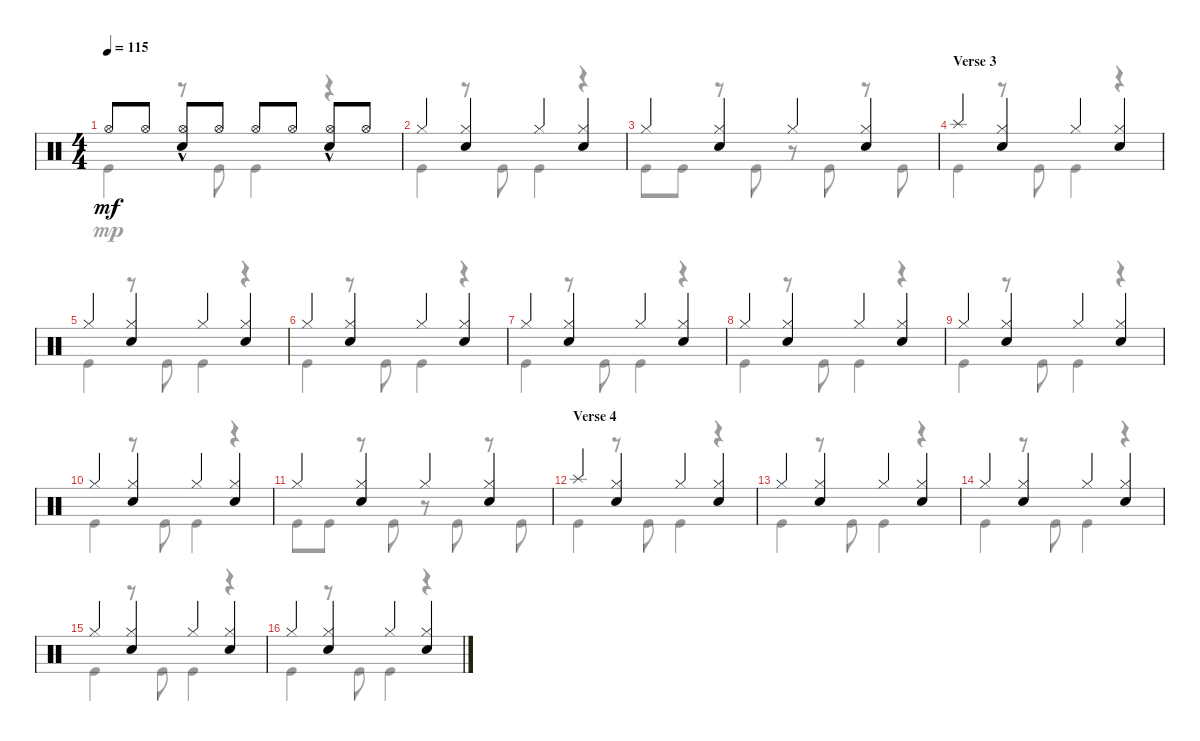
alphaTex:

\defaultSystemsLayout 4
\bracketExtendMode nobrackets
\singleTrackTrackNamePolicy hidden
\multiTrackTrackNamePolicy hidden
\firstSystemTrackNameOrientation horizontal
\otherSystemsTrackNameOrientation horizontal
\track ("Drums" "Drums") {instrument percussion}
\staff {score}
\articulation defaults
\voice
\ts (4 4)
\tempo 115
\clef neutral
\ks c "Hi-Hat (open)".8{dy mf} "Hi-Hat (open)".8
("Hi-Hat (open)"{hac} "Snare (hit) 2").8 "Hi-Hat (open)".8 "Hi-Hat (open)".8 "Hi-Hat (open)".8 ("Hi-Hat (open)"{hac} "Snare (hit) 2").8 "Hi-Hat (open)".8 |
"Hi-Hat (closed)".4 ("Hi-Hat (closed)" "Snare (hit) 2").4 "Hi-Hat (closed)".4 ("Hi-Hat (closed)" "Snare (hit) 2").4 |
"Hi-Hat (closed)".4 ("Hi-Hat (closed)" "Snare (hit) 2").4 "Hi-Hat (closed)".4 ("Hi-Hat (closed)" "Snare (hit) 2").4 |
\section ("" "Verse 3")
"Splash (hit)".4 ("Hi-Hat (closed)" "Snare (hit) 2").4 "Hi-Hat (closed)".4 ("Hi-Hat (closed)" "Snare (hit) 2").4 |
"Hi-Hat (closed)".4 ("Hi-Hat (closed)" "Snare (hit) 2").4 "Hi-Hat (closed)".4 ("Hi-Hat (closed)" "Snare (hit) 2").4 |
"Hi-Hat (closed)".4 ("Hi-Hat (closed)" "Snare (hit) 2").4 "Hi-Hat (closed)".4 ("Hi-Hat (closed)" "Snare (hit) 2").4 |
"Hi-Hat (closed)".4 ("Hi-Hat (closed)" "Snare (hit) 2").4 "Hi-Hat (closed)".4 ("Hi-Hat (closed)" "Snare (hit) 2").4 |
"Hi-Hat (closed)".4 ("Hi-Hat (closed)" "Snare (hit) 2").4 "Hi-Hat (closed)".4 ("Hi-Hat (closed)" "Snare (hit) 2").4 |
"Hi-Hat (closed)".4 ("Hi-Hat (closed)" "Snare (hit) 2").4 "Hi-Hat (closed)".4 ("Hi-Hat (closed)" "Snare (hit) 2").4 |
"Hi-Hat (closed)".4 ("Hi-Hat (closed)" "Snare (hit) 2").4 "Hi-Hat (closed)".4 ("Hi-Hat (closed)" "Snare (hit) 2").4 |
"Hi-Hat (closed)".4 ("Hi-Hat (closed)" "Snare (hit) 2").4 "Hi-Hat (closed)".4 ("Hi-Hat (closed)" "Snare (hit) 2").4 |
\section ("" "Verse 4")
"Splash (hit)".4 ("Hi-Hat (closed)" "Snare (hit) 2").4 "Hi-Hat (closed)".4 ("Hi-Hat (closed)" "Snare (hit) 2").4 |
"Hi-Hat (closed)".4 ("Hi-Hat (closed)" "Snare (hit) 2").4 "Hi-Hat (closed)".4 ("Hi-Hat (closed)" "Snare (hit) 2").4 |
"Hi-Hat (closed)".4 ("Hi-Hat (closed)" "Snare (hit) 2").4 "Hi-Hat (closed)".4 ("Hi-Hat (closed)" "Snare (hit) 2").4 |
"Hi-Hat (closed)".4 ("Hi-Hat (closed)" "Snare (hit) 2").4 "Hi-Hat (closed)".4 ("Hi-Hat (closed)" "Snare (hit) 2").4 |
"Hi-Hat (closed)".4 ("Hi-Hat (closed)" "Snare (hit) 2").4 "Hi-Hat (closed)".4 ("Hi-Hat (closed)" "Snare (hit) 2").4
\voice
\clef neutral
\ottava regular
\simile none
\ks c "Kick (hit)".4{dy mp}
r.8 "Kick (hit)".8 "Kick (hit)".4 r.4 |
"Kick (hit)".4 r.8 "Kick (hit)".8 "Kick (hit)".4 r.4 |
"Kick (hit)".8 "Kick (hit)".8 r.8 "Kick (hit)".8 r.8 "Kick (hit)".8 r.8 "Kick (hit)".8 |
"Kick (hit)".4 r.8 "Kick (hit)".8 "Kick (hit)".4 r.4 |
"Kick (hit)".4 r.8 "Kick (hit)".8 "Kick (hit)".4 r.4 |
"Kick (hit)".4 r.8 "Kick (hit)".8 "Kick (hit)".4 r.4 |
"Kick (hit)".4 r.8 "Kick (hit)".8 "Kick (hit)".4 r.4 |
"Kick (hit)".4 r.8 "Kick (hit)".8 "Kick (hit)".4 r.4 |
"Kick (hit)".4 r.8 "Kick (hit)".8 "Kick (hit)".4 r.4 |
"Kick (hit)".4 r.8 "Kick (hit)".8 "Kick (hit)".4 r.4 |
"Kick (hit)".8 "Kick (hit)".8 r.8 "Kick (hit)".8 r.8 "Kick (hit)".8 r.8 "Kick (hit)".8 |
"Kick (hit)".4 r.8 "Kick (hit)".8 "Kick (hit)".4 r.4 |
"Kick (hit)".4 r.8 "Kick (hit)".8 "Kick (hit)".4 r.4 |
"Kick (hit)".4 r.8 "Kick (hit)".8 "Kick (hit)".4 r.4 |
"Kick (hit)".4 r.8 "Kick (hit)".8 "Kick (hit)".4 r.4 |
"Kick (hit)".4 r.8 "Kick (hit)".8 "Kick (hit)".4 r.4
